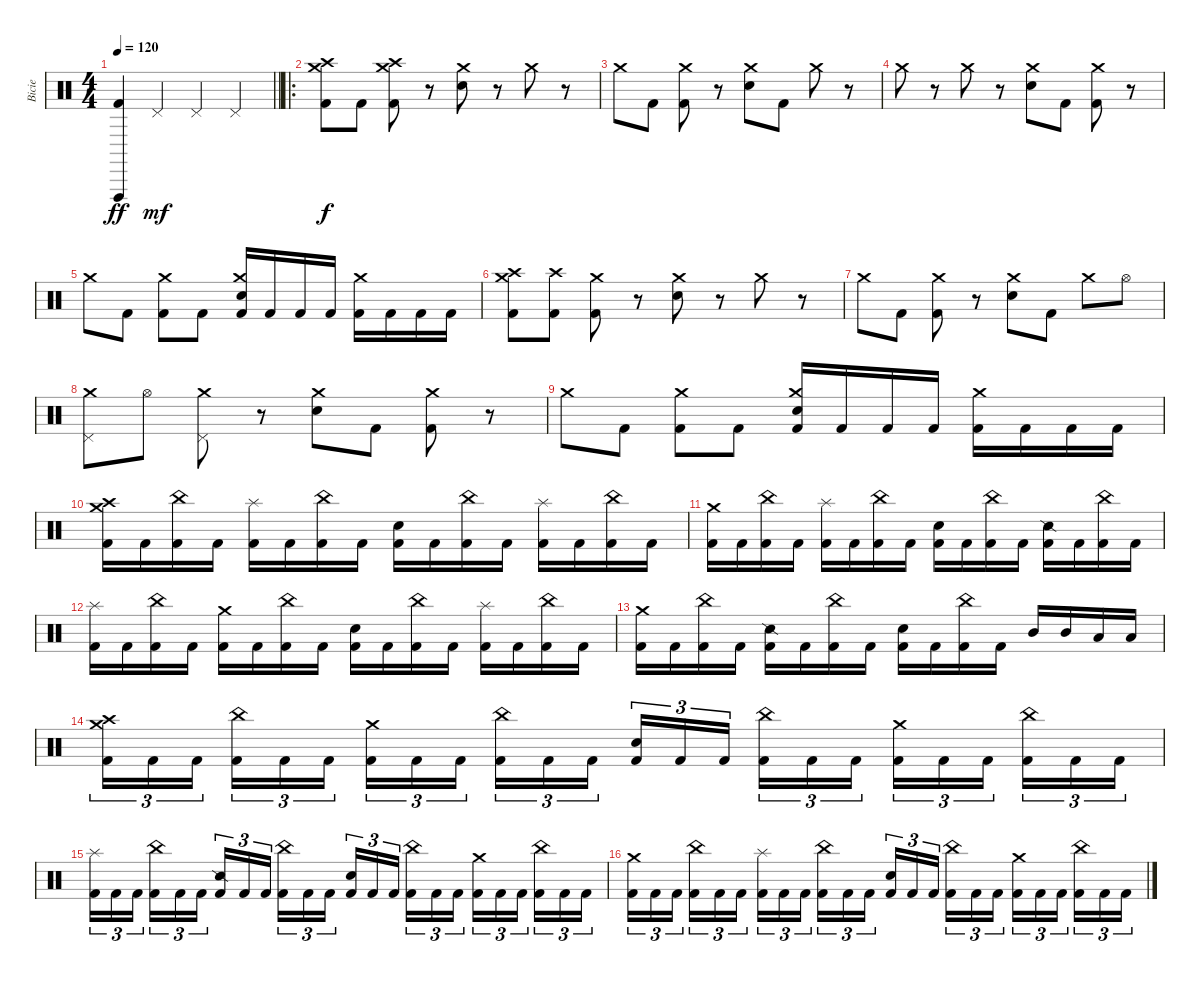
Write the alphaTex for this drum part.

\track ("Bicie" "Bicie") {instrument percussion}
\staff {score}
\articulation defaults
\ts (4 4)
\tempo 120
\clef neutral
\barLineRight lightlight
\ks c
("Vibraslap (hit)" "Kick (hit) 2").4{dy ff} "Pedal Hi-Hat (hit)".4{dy mf} "Pedal Hi-Hat (hit)".4 "Pedal Hi-Hat (hit)".4 |
\ro
("Crash high (hit)" "Crash medium (hit)" "Kick (hit) 2").8{dy f} "Kick (hit) 2".8 ("Crash medium (hit)" "Crash high (hit)" "Kick (hit) 2").8 r.8 ("Crash medium (hit)" "Snare (hit) 2").8 r.8 "Crash medium (hit)".8 r.8 |
"Crash medium (hit)".8 "Kick (hit) 2".8 ("Crash medium (hit)" "Kick (hit) 2").8 r.8 ("Crash medium (hit)" "Snare (hit) 2").8 "Kick (hit) 2".8 "Crash medium (hit)".8 r.8 |
"Crash medium (hit)".8 r.8 "Crash medium (hit)".8 r.8 ("Crash medium (hit)" "Snare (hit) 2").8 "Kick (hit) 2".8 ("Crash medium (hit)" "Kick (hit) 2").8 r.8 |
"Crash medium (hit)".8 "Kick (hit) 2".8 ("Crash medium (hit)" "Kick (hit) 2").8 "Kick (hit) 2".8 ("Crash medium (hit)" "Snare (hit) 2" "Kick (hit) 2").16 "Kick (hit) 2".16 "Kick (hit) 2".16 "Kick (hit) 2".16 ("Crash medium (hit)" "Kick (hit) 2").16 "Kick (hit) 2".16 "Kick (hit) 2".16 "Kick (hit) 2".16 |
("Crash high (hit)" "Crash medium (hit)" "Kick (hit) 2").8 ("Crash high (hit)" "Kick (hit) 2").8 ("Crash medium (hit)" "Kick (hit) 2").8 r.8 ("Crash medium (hit)" "Snare (hit) 2").8 r.8 "Crash medium (hit)".8 r.8 |
"Crash medium (hit)".8 "Kick (hit) 2".8 ("Crash medium (hit)" "Kick (hit) 2").8 r.8 ("Crash medium (hit)" "Snare (hit) 2").8 "Kick (hit) 2".8 "Crash medium (hit)".8 "Hi-Hat (open)".8 |
("Crash medium (hit)" "Pedal Hi-Hat (hit)").8 "Hi-Hat (open)".8 ("Crash medium (hit)" "Pedal Hi-Hat (hit)").8 r.8 ("Crash medium (hit)" "Snare (hit) 2").8 "Kick (hit) 2".8 ("Crash medium (hit)" "Kick (hit) 2").8 r.8 |
"Crash medium (hit)".8 "Kick (hit) 2".8 ("Crash medium (hit)" "Kick (hit) 2").8 "Kick (hit) 2".8 ("Crash medium (hit)" "Snare (hit) 2" "Kick (hit) 2").16 "Kick (hit) 2".16 "Kick (hit) 2".16 "Kick (hit) 2".16 ("Crash medium (hit)" "Kick (hit) 2").16 "Kick (hit) 2".16 "Kick (hit) 2".16 "Kick (hit) 2".16 |
("Crash medium (hit)" "Crash high (hit)" "Kick (hit) 2").16 "Kick (hit) 2".16 ("China (hit)" "Kick (hit) 2").16 "Kick (hit) 2".16 ("Splash (hit)" "Kick (hit) 2").16 "Kick (hit) 2".16 ("China (hit)" "Kick (hit) 2").16 "Kick (hit) 2".16 ("Snare (hit) 2" "Kick (hit) 2").16 "Kick (hit) 2".16 ("China (hit)" "Kick (hit) 2").16 "Kick (hit) 2".16 ("Splash (hit)" "Kick (hit) 2").16 "Kick (hit) 2".16 ("China (hit)" "Kick (hit) 2").16 "Kick (hit) 2".16 |
("Crash medium (hit)" "Kick (hit) 2").16 "Kick (hit) 2".16 ("China (hit)" "Kick (hit) 2").16 "Kick (hit) 2".16 ("Splash (hit)" "Kick (hit) 2").16 "Kick (hit) 2".16 ("China (hit)" "Kick (hit) 2").16 "Kick (hit) 2".16 ("Snare (hit) 2" "Kick (hit) 2").16 "Kick (hit) 2".16 ("China (hit)" "Kick (hit) 2").16 "Kick (hit) 2".16 ("Snare (side stick) 2" "Kick (hit) 2").16 "Kick (hit) 2".16 ("China (hit)" "Kick (hit) 2").16 "Kick (hit) 2".16 |
("Splash (hit)" "Kick (hit) 2").16 "Kick (hit) 2".16 ("China (hit)" "Kick (hit) 2").16 "Kick (hit) 2".16 ("Crash medium (hit)" "Kick (hit) 2").16 "Kick (hit) 2".16 ("China (hit)" "Kick (hit) 2").16 "Kick (hit) 2".16 ("Snare (hit) 2" "Kick (hit) 2").16 "Kick (hit) 2".16 ("China (hit)" "Kick (hit) 2").16 "Kick (hit) 2".16 ("Splash (hit)" "Kick (hit) 2").16 "Kick (hit) 2".16 ("China (hit)" "Kick (hit) 2").16 "Kick (hit) 2".16 |
("Crash medium (hit)" "Kick (hit) 2").16 "Kick (hit) 2".16 ("China (hit)" "Kick (hit) 2").16 "Kick (hit) 2".16 ("Snare (side stick) 2" "Kick (hit) 2").16 "Kick (hit) 2".16 ("China (hit)" "Kick (hit) 2").16 "Kick (hit) 2".16 ("Snare (hit) 2" "Kick (hit) 2").16 "Kick (hit) 2".16 ("China (hit)" "Kick (hit) 2").16 "Kick (hit) 2".16 "Mid Tom (hit)".16 "Mid Tom (hit)".16 "Low Tom (hit)".16 "Low Tom (hit)".16 |
("Crash medium (hit)" "Crash high (hit)" "Kick (hit) 2").16{tu (3 2)} "Kick (hit) 2".16{tu (3 2)} "Kick (hit) 2".16{tu (3 2) beam splitsecondary} ("China (hit)" "Kick (hit) 2").16{tu (3 2)} "Kick (hit) 2".16{tu (3 2)} "Kick (hit) 2".16{tu (3 2)} ("Crash medium (hit)" "Kick (hit) 2").16{tu (3 2)} "Kick (hit) 2".16{tu (3 2)} "Kick (hit) 2".16{tu (3 2) beam splitsecondary} ("China (hit)" "Kick (hit) 2").16{tu (3 2)} "Kick (hit) 2".16{tu (3 2)} "Kick (hit) 2".16{tu (3 2)} ("Snare (hit) 2" "Kick (hit) 2").16{tu (3 2)} "Kick (hit) 2".16{tu (3 2)} "Kick (hit) 2".16{tu (3 2) beam splitsecondary} ("China (hit)" "Kick (hit) 2").16{tu (3 2)} "Kick (hit) 2".16{tu (3 2)} "Kick (hit) 2".16{tu (3 2)} ("Crash medium (hit)" "Kick (hit) 2").16{tu (3 2)} "Kick (hit) 2".16{tu (3 2)} "Kick (hit) 2".16{tu (3 2) beam splitsecondary} ("China (hit)" "Kick (hit) 2").16{tu (3 2)} "Kick (hit) 2".16{tu (3 2)} "Kick (hit) 2".16{tu (3 2)} |
("Splash (hit)" "Kick (hit) 2").16{tu (3 2)} "Kick (hit) 2".16{tu (3 2)} "Kick (hit) 2".16{tu (3 2) beam splitsecondary} ("China (hit)" "Kick (hit) 2").16{tu (3 2)} "Kick (hit) 2".16{tu (3 2)} "Kick (hit) 2".16{tu (3 2)} ("Snare (side stick) 2" "Kick (hit) 2").16{tu (3 2)} "Kick (hit) 2".16{tu (3 2)} "Kick (hit) 2".16{tu (3 2) beam splitsecondary} ("China (hit)" "Kick (hit) 2").16{tu (3 2)} "Kick (hit) 2".16{tu (3 2)} "Kick (hit) 2".16{tu (3 2)} ("Snare (hit) 2" "Kick (hit) 2").16{tu (3 2)} "Kick (hit) 2".16{tu (3 2)} "Kick (hit) 2".16{tu (3 2) beam splitsecondary} ("China (hit)" "Kick (hit) 2").16{tu (3 2)} "Kick (hit) 2".16{tu (3 2)} "Kick (hit) 2".16{tu (3 2)} ("Crash medium (hit)" "Kick (hit) 2").16{tu (3 2)} "Kick (hit) 2".16{tu (3 2)} "Kick (hit) 2".16{tu (3 2) beam splitsecondary} ("China (hit)" "Kick (hit) 2").16{tu (3 2)} "Kick (hit) 2".16{tu (3 2)} "Kick (hit) 2".16{tu (3 2)} |
("Crash medium (hit)" "Kick (hit) 2").16{tu (3 2)} "Kick (hit) 2".16{tu (3 2)} "Kick (hit) 2".16{tu (3 2) beam splitsecondary} ("China (hit)" "Kick (hit) 2").16{tu (3 2)} "Kick (hit) 2".16{tu (3 2)} "Kick (hit) 2".16{tu (3 2)} ("Splash (hit)" "Kick (hit) 2").16{tu (3 2)} "Kick (hit) 2".16{tu (3 2)} "Kick (hit) 2".16{tu (3 2) beam splitsecondary} ("China (hit)" "Kick (hit) 2").16{tu (3 2)} "Kick (hit) 2".16{tu (3 2)} "Kick (hit) 2".16{tu (3 2)} ("Snare (hit) 2" "Kick (hit) 2").16{tu (3 2)} "Kick (hit) 2".16{tu (3 2)} "Kick (hit) 2".16{tu (3 2) beam splitsecondary} ("China (hit)" "Kick (hit) 2").16{tu (3 2)} "Kick (hit) 2".16{tu (3 2)} "Kick (hit) 2".16{tu (3 2)} ("Crash medium (hit)" "Kick (hit) 2").16{tu (3 2)} "Kick (hit) 2".16{tu (3 2)} "Kick (hit) 2".16{tu (3 2) beam splitsecondary} ("China (hit)" "Kick (hit) 2").16{tu (3 2)} "Kick (hit) 2".16{tu (3 2)} "Kick (hit) 2".16{tu (3 2)}
